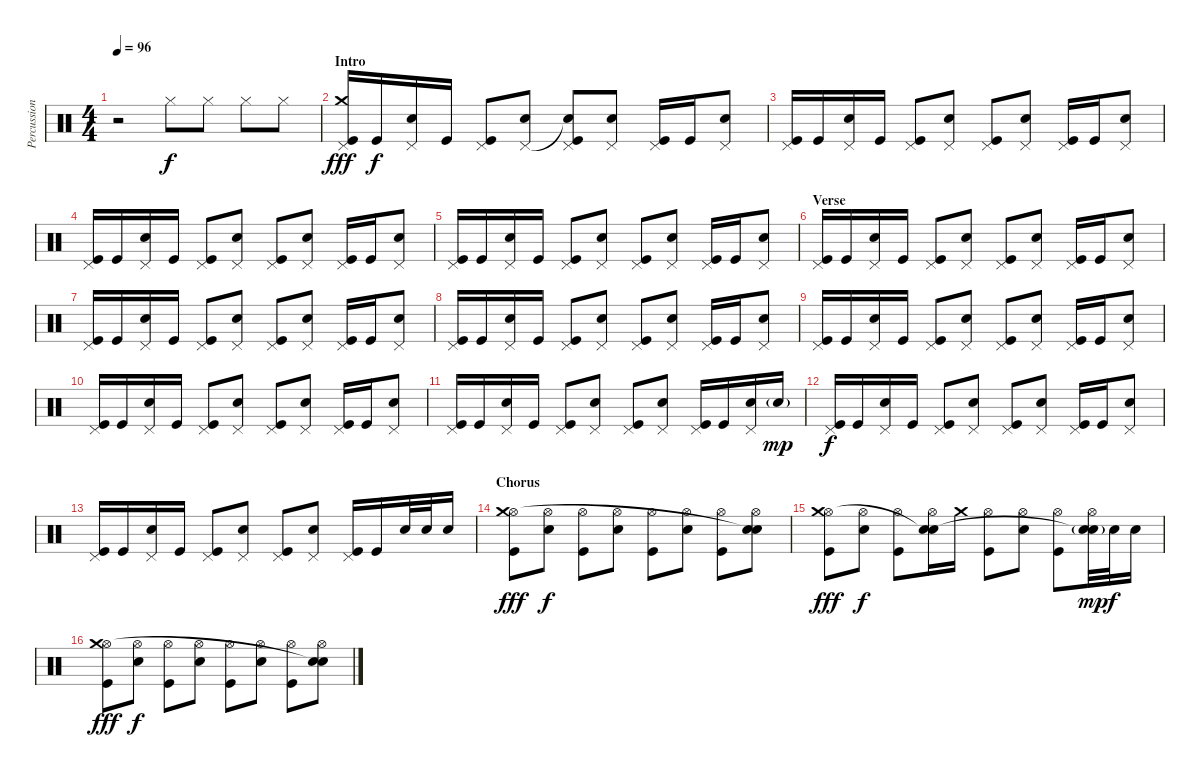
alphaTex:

\track ("Percussion" "Percussion") {instrument percussion}
\staff {score}
\articulation defaults
\ts (4 4)
\tempo 96
\clef neutral
\ks c
r.2{dy f} "Hi-Hat (closed)".8 "Hi-Hat (closed)".8 "Hi-Hat (closed)".8 "Hi-Hat (closed)".8 |
\section ("" "Intro")
("Kick (hit)" "Crash medium (hit)" "Pedal Hi-Hat (hit)").16{dy fff} "Kick (hit)".16{dy f} ("Electric Snare (hit)" "Pedal Hi-Hat (hit)").16 "Kick (hit)".16 ("Kick (hit)" "Pedal Hi-Hat (hit)").8 ("Electric Snare (hit)" "Pedal Hi-Hat (hit)").8 ("Kick (hit)" "Snare (hit)"{t} "Pedal Hi-Hat (hit)").8 ("Electric Snare (hit)" "Pedal Hi-Hat (hit)").8 ("Kick (hit)" "Pedal Hi-Hat (hit)").16 "Kick (hit)".16 ("Electric Snare (hit)" "Pedal Hi-Hat (hit)").8 |
("Kick (hit)" "Pedal Hi-Hat (hit)").16 "Kick (hit)".16 ("Electric Snare (hit)" "Pedal Hi-Hat (hit)").16 "Kick (hit)".16 ("Kick (hit)" "Pedal Hi-Hat (hit)").8 ("Electric Snare (hit)" "Pedal Hi-Hat (hit)").8 ("Kick (hit)" "Pedal Hi-Hat (hit)").8 ("Electric Snare (hit)" "Pedal Hi-Hat (hit)").8 ("Kick (hit)" "Pedal Hi-Hat (hit)").16 "Kick (hit)".16 ("Electric Snare (hit)" "Pedal Hi-Hat (hit)").8 |
("Kick (hit)" "Pedal Hi-Hat (hit)").16 "Kick (hit)".16 ("Electric Snare (hit)" "Pedal Hi-Hat (hit)").16 "Kick (hit)".16 ("Kick (hit)" "Pedal Hi-Hat (hit)").8 ("Electric Snare (hit)" "Pedal Hi-Hat (hit)").8 ("Kick (hit)" "Pedal Hi-Hat (hit)").8 ("Electric Snare (hit)" "Pedal Hi-Hat (hit)").8 ("Kick (hit)" "Pedal Hi-Hat (hit)").16 "Kick (hit)".16 ("Electric Snare (hit)" "Pedal Hi-Hat (hit)").8 |
("Kick (hit)" "Pedal Hi-Hat (hit)").16 "Kick (hit)".16 ("Electric Snare (hit)" "Pedal Hi-Hat (hit)").16 "Kick (hit)".16 ("Kick (hit)" "Pedal Hi-Hat (hit)").8 ("Electric Snare (hit)" "Pedal Hi-Hat (hit)").8 ("Kick (hit)" "Pedal Hi-Hat (hit)").8 ("Electric Snare (hit)" "Pedal Hi-Hat (hit)").8 ("Kick (hit)" "Pedal Hi-Hat (hit)").16 "Kick (hit)".16 ("Electric Snare (hit)" "Pedal Hi-Hat (hit)").8 |
\section ("" "Verse")
("Kick (hit)" "Pedal Hi-Hat (hit)").16 "Kick (hit)".16 ("Electric Snare (hit)" "Pedal Hi-Hat (hit)").16 "Kick (hit)".16 ("Kick (hit)" "Pedal Hi-Hat (hit)").8 ("Electric Snare (hit)" "Pedal Hi-Hat (hit)").8 ("Kick (hit)" "Pedal Hi-Hat (hit)").8 ("Electric Snare (hit)" "Pedal Hi-Hat (hit)").8 ("Kick (hit)" "Pedal Hi-Hat (hit)").16 "Kick (hit)".16 ("Electric Snare (hit)" "Pedal Hi-Hat (hit)").8 |
("Kick (hit)" "Pedal Hi-Hat (hit)").16 "Kick (hit)".16 ("Electric Snare (hit)" "Pedal Hi-Hat (hit)").16 "Kick (hit)".16 ("Kick (hit)" "Pedal Hi-Hat (hit)").8 ("Electric Snare (hit)" "Pedal Hi-Hat (hit)").8 ("Kick (hit)" "Pedal Hi-Hat (hit)").8 ("Electric Snare (hit)" "Pedal Hi-Hat (hit)").8 ("Kick (hit)" "Pedal Hi-Hat (hit)").16 "Kick (hit)".16 ("Electric Snare (hit)" "Pedal Hi-Hat (hit)").8 |
("Kick (hit)" "Pedal Hi-Hat (hit)").16 "Kick (hit)".16 ("Electric Snare (hit)" "Pedal Hi-Hat (hit)").16 "Kick (hit)".16 ("Kick (hit)" "Pedal Hi-Hat (hit)").8 ("Electric Snare (hit)" "Pedal Hi-Hat (hit)").8 ("Kick (hit)" "Pedal Hi-Hat (hit)").8 ("Electric Snare (hit)" "Pedal Hi-Hat (hit)").8 ("Kick (hit)" "Pedal Hi-Hat (hit)").16 "Kick (hit)".16 ("Electric Snare (hit)" "Pedal Hi-Hat (hit)").8 |
("Kick (hit)" "Pedal Hi-Hat (hit)").16 "Kick (hit)".16 ("Electric Snare (hit)" "Pedal Hi-Hat (hit)").16 "Kick (hit)".16 ("Kick (hit)" "Pedal Hi-Hat (hit)").8 ("Electric Snare (hit)" "Pedal Hi-Hat (hit)").8 ("Kick (hit)" "Pedal Hi-Hat (hit)").8 ("Electric Snare (hit)" "Pedal Hi-Hat (hit)").8 ("Kick (hit)" "Pedal Hi-Hat (hit)").16 "Kick (hit)".16 ("Electric Snare (hit)" "Pedal Hi-Hat (hit)").8 |
("Kick (hit)" "Pedal Hi-Hat (hit)").16 "Kick (hit)".16 ("Electric Snare (hit)" "Pedal Hi-Hat (hit)").16 "Kick (hit)".16 ("Kick (hit)" "Pedal Hi-Hat (hit)").8 ("Electric Snare (hit)" "Pedal Hi-Hat (hit)").8 ("Kick (hit)" "Pedal Hi-Hat (hit)").8 ("Electric Snare (hit)" "Pedal Hi-Hat (hit)").8 ("Kick (hit)" "Pedal Hi-Hat (hit)").16 "Kick (hit)".16 ("Electric Snare (hit)" "Pedal Hi-Hat (hit)").8 |
("Kick (hit)" "Pedal Hi-Hat (hit)").16 "Kick (hit)".16 ("Electric Snare (hit)" "Pedal Hi-Hat (hit)").16 "Kick (hit)".16 ("Kick (hit)" "Pedal Hi-Hat (hit)").8 ("Electric Snare (hit)" "Pedal Hi-Hat (hit)").8 ("Kick (hit)" "Pedal Hi-Hat (hit)").8 ("Electric Snare (hit)" "Pedal Hi-Hat (hit)").8 ("Kick (hit)" "Pedal Hi-Hat (hit)").16 "Kick (hit)".16 ("Electric Snare (hit)" "Pedal Hi-Hat (hit)").16 "Electric Snare (hit)"{g}.16{dy mp} |
("Kick (hit)" "Pedal Hi-Hat (hit)").16{dy f} "Kick (hit)".16 ("Electric Snare (hit)" "Pedal Hi-Hat (hit)").16 "Kick (hit)".16 ("Kick (hit)" "Pedal Hi-Hat (hit)").8 ("Electric Snare (hit)" "Pedal Hi-Hat (hit)").8 ("Kick (hit)" "Pedal Hi-Hat (hit)").8 ("Electric Snare (hit)" "Pedal Hi-Hat (hit)").8 ("Kick (hit)" "Pedal Hi-Hat (hit)").16 "Kick (hit)".16 ("Electric Snare (hit)" "Pedal Hi-Hat (hit)").8 |
("Kick (hit)" "Pedal Hi-Hat (hit)").16 "Kick (hit)".16 ("Electric Snare (hit)" "Pedal Hi-Hat (hit)").16 "Kick (hit)".16 ("Kick (hit)" "Pedal Hi-Hat (hit)").8 ("Electric Snare (hit)" "Pedal Hi-Hat (hit)").8 ("Kick (hit)" "Pedal Hi-Hat (hit)").8 ("Electric Snare (hit)" "Pedal Hi-Hat (hit)").8 ("Kick (hit)" "Pedal Hi-Hat (hit)").16 "Kick (hit)".16 "Electric Snare (hit)".32 "Electric Snare (hit)".32 "Electric Snare (hit)".16 |
\section ("" "Chorus")
("Hi-Hat (open)" "Kick (hit)" "Crash medium (hit)").8{dy fff} ("Hi-Hat (open)" "Electric Snare (hit)").8{dy f} ("Hi-Hat (open)" "Kick (hit)").8 ("Hi-Hat (open)" "Electric Snare (hit)").8 ("Hi-Hat (open)" "Kick (hit)").8 ("Hi-Hat (open)" "Electric Snare (hit)").8 ("Hi-Hat (open)" "Kick (hit)").8 ("Hi-Hat (open)" "Electric Snare (hit)" "Snare (hit)"{t}).8 |
("Hi-Hat (open)" "Kick (hit)" "Crash medium (hit)").8{dy fff} ("Hi-Hat (open)" "Electric Snare (hit)").8{dy f} ("Hi-Hat (open)" "Kick (hit)").8 ("Hi-Hat (open)" "Electric Snare (hit)" "Snare (hit)"{t}).16 "Crash medium (hit)".16 ("Hi-Hat (open)" "Kick (hit)").8 ("Hi-Hat (open)" "Electric Snare (hit)").8 ("Hi-Hat (open)" "Kick (hit)").8 ("Hi-Hat (open)" "Electric Snare (hit)"{g} "Snare (hit)"{t}).32{dy mp} "Electric Snare (hit)".32{dy f} "Electric Snare (hit)".16 |
("Hi-Hat (open)" "Kick (hit)" "Crash medium (hit)").8{dy fff} ("Hi-Hat (open)" "Electric Snare (hit)").8{dy f} ("Hi-Hat (open)" "Kick (hit)").8 ("Hi-Hat (open)" "Electric Snare (hit)").8 ("Hi-Hat (open)" "Kick (hit)").8 ("Hi-Hat (open)" "Electric Snare (hit)").8 ("Hi-Hat (open)" "Kick (hit)").8 ("Hi-Hat (open)" "Electric Snare (hit)" "Snare (hit)"{t}).8
